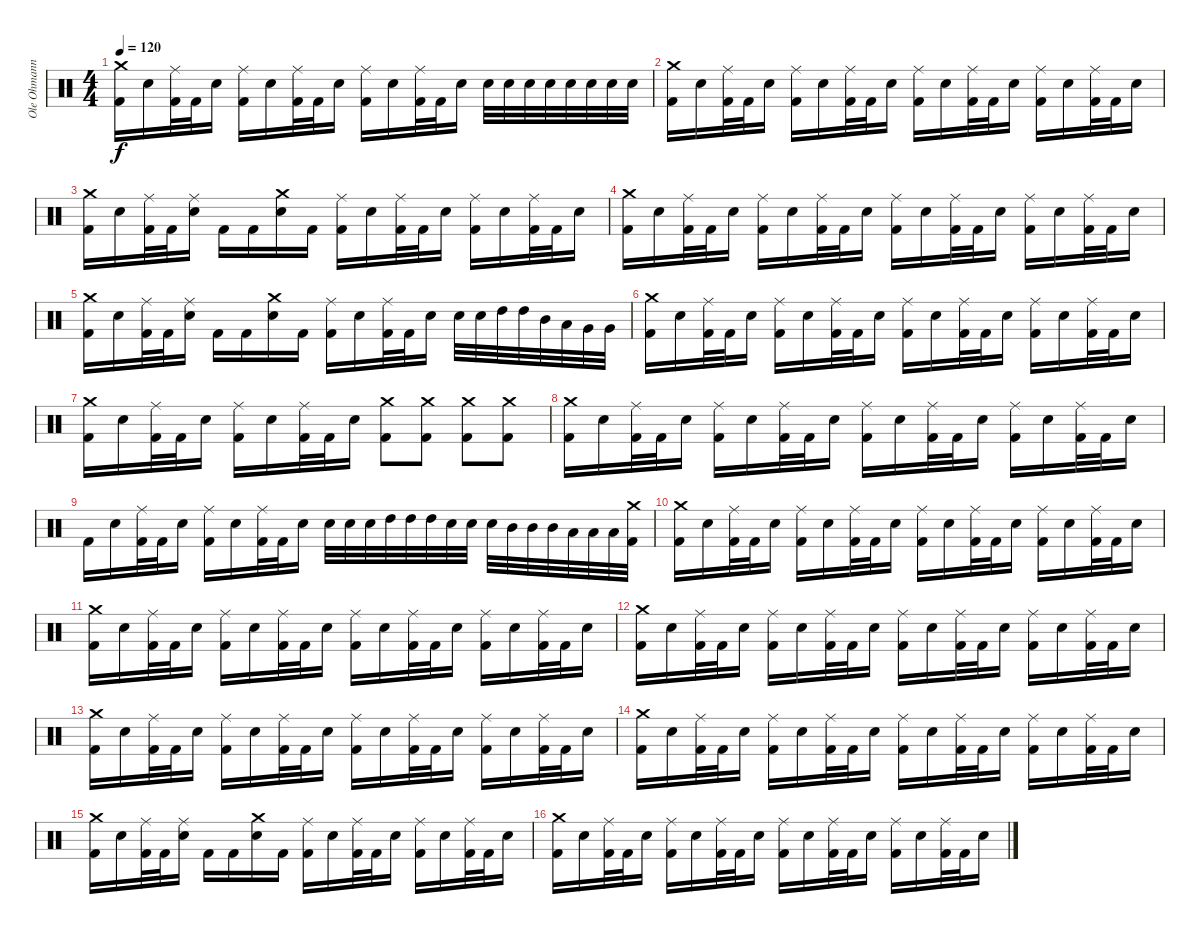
\track ("Ole Ohmann" "Ole Ohmann") {instrument percussion}
\staff {score}
\articulation defaults
\ts (4 4)
\tempo 120
\clef neutral
\ks c
("Crash medium (hit)" "Kick (hit) 2").16{dy f} "Electric Snare (hit)".16 ("Ride (middle)" "Kick (hit) 2").32 "Kick (hit) 2".32 "Electric Snare (hit)".16 ("Ride (middle)" "Kick (hit) 2").16 "Electric Snare (hit)".16 ("Ride (middle)" "Kick (hit) 2").32 "Kick (hit) 2".32 "Electric Snare (hit)".16 ("Ride (middle)" "Kick (hit) 2").16 "Electric Snare (hit)".16 ("Ride (middle)" "Kick (hit) 2").32 "Kick (hit) 2".32 "Electric Snare (hit)".16 "Electric Snare (hit)".32 "Electric Snare (hit)".32 "Electric Snare (hit)".32 "Electric Snare (hit)".32 "Electric Snare (hit)".32 "Electric Snare (hit)".32 "Electric Snare (hit)".32 "Electric Snare (hit)".32 |
("Crash medium (hit)" "Kick (hit) 2").16 "Electric Snare (hit)".16 ("Ride (middle)" "Kick (hit) 2").32 "Kick (hit) 2".32 "Electric Snare (hit)".16 ("Ride (middle)" "Kick (hit) 2").16 "Electric Snare (hit)".16 ("Ride (middle)" "Kick (hit) 2").32 "Kick (hit) 2".32 "Electric Snare (hit)".16 ("Ride (middle)" "Kick (hit) 2").16 "Electric Snare (hit)".16 ("Ride (middle)" "Kick (hit) 2").32 "Kick (hit) 2".32 "Electric Snare (hit)".16 ("Ride (middle)" "Kick (hit) 2").16 "Electric Snare (hit)".16 ("Ride (middle)" "Kick (hit) 2").32 "Kick (hit) 2".32 "Electric Snare (hit)".16 |
("Crash medium (hit)" "Kick (hit) 2").16 "Electric Snare (hit)".16 ("Ride (middle)" "Kick (hit) 2").32 "Kick (hit) 2".32 ("Ride (middle)" "Electric Snare (hit)").16 "Kick (hit) 2".16 "Kick (hit) 2".16 ("Crash medium (hit)" "Electric Snare (hit)").16 "Kick (hit) 2".16 ("Ride (middle)" "Kick (hit) 2").16 "Electric Snare (hit)".16 ("Ride (middle)" "Kick (hit) 2").32 "Kick (hit) 2".32 "Electric Snare (hit)".16 ("Ride (middle)" "Kick (hit) 2").16 "Electric Snare (hit)".16 ("Ride (middle)" "Kick (hit) 2").32 "Kick (hit) 2".32 "Electric Snare (hit)".16 |
("Crash medium (hit)" "Kick (hit) 2").16 "Electric Snare (hit)".16 ("Ride (middle)" "Kick (hit) 2").32 "Kick (hit) 2".32 "Electric Snare (hit)".16 ("Ride (middle)" "Kick (hit) 2").16 "Electric Snare (hit)".16 ("Ride (middle)" "Kick (hit) 2").32 "Kick (hit) 2".32 "Electric Snare (hit)".16 ("Ride (middle)" "Kick (hit) 2").16 "Electric Snare (hit)".16 ("Ride (middle)" "Kick (hit) 2").32 "Kick (hit) 2".32 "Electric Snare (hit)".16 ("Ride (middle)" "Kick (hit) 2").16 "Electric Snare (hit)".16 ("Ride (middle)" "Kick (hit) 2").32 "Kick (hit) 2".32 "Electric Snare (hit)".16 |
("Crash medium (hit)" "Kick (hit) 2").16 "Electric Snare (hit)".16 ("Ride (middle)" "Kick (hit) 2").32 "Kick (hit) 2".32 ("Ride (middle)" "Electric Snare (hit)").16 "Kick (hit) 2".16 "Kick (hit) 2".16 ("Crash medium (hit)" "Electric Snare (hit)").16 "Kick (hit) 2".16 ("Ride (middle)" "Kick (hit) 2").16 "Electric Snare (hit)".16 ("Ride (middle)" "Kick (hit) 2").32 "Kick (hit) 2".32 "Electric Snare (hit)".16 "Electric Snare (hit)".32 "Electric Snare (hit)".32 "High Tom (hit)".32 "High Tom (hit)".32 "Mid Tom (hit)".32 "Low Tom (hit)".32 "Very Low Tom (hit)".32 "Very Low Tom (hit)".32 |
("Crash medium (hit)" "Kick (hit) 2").16 "Electric Snare (hit)".16 ("Ride (middle)" "Kick (hit) 2").32 "Kick (hit) 2".32 "Electric Snare (hit)".16 ("Ride (middle)" "Kick (hit) 2").16 "Electric Snare (hit)".16 ("Ride (middle)" "Kick (hit) 2").32 "Kick (hit) 2".32 "Electric Snare (hit)".16 ("Ride (middle)" "Kick (hit) 2").16 "Electric Snare (hit)".16 ("Ride (middle)" "Kick (hit) 2").32 "Kick (hit) 2".32 "Electric Snare (hit)".16 ("Ride (middle)" "Kick (hit) 2").16 "Electric Snare (hit)".16 ("Ride (middle)" "Kick (hit) 2").32 "Kick (hit) 2".32 "Electric Snare (hit)".16 |
("Crash medium (hit)" "Kick (hit) 2").16 "Electric Snare (hit)".16 ("Ride (middle)" "Kick (hit) 2").32 "Kick (hit) 2".32 "Electric Snare (hit)".16 ("Ride (middle)" "Kick (hit) 2").16 "Electric Snare (hit)".16 ("Ride (middle)" "Kick (hit) 2").32 "Kick (hit) 2".32 "Electric Snare (hit)".16 ("Crash medium (hit)" "Kick (hit) 2").8 ("Crash medium (hit)" "Kick (hit) 2").8 ("Crash medium (hit)" "Kick (hit) 2").8 ("Crash medium (hit)" "Kick (hit) 2").8 |
("Crash medium (hit)" "Kick (hit) 2").16 "Electric Snare (hit)".16 ("Ride (middle)" "Kick (hit) 2").32 "Kick (hit) 2".32 "Electric Snare (hit)".16 ("Ride (middle)" "Kick (hit) 2").16 "Electric Snare (hit)".16 ("Ride (middle)" "Kick (hit) 2").32 "Kick (hit) 2".32 "Electric Snare (hit)".16 ("Ride (middle)" "Kick (hit) 2").16 "Electric Snare (hit)".16 ("Ride (middle)" "Kick (hit) 2").32 "Kick (hit) 2".32 "Electric Snare (hit)".16 ("Ride (middle)" "Kick (hit) 2").16 "Electric Snare (hit)".16 ("Ride (middle)" "Kick (hit) 2").32 "Kick (hit) 2".32 "Electric Snare (hit)".16 |
"Kick (hit) 2".16 "Electric Snare (hit)".16 ("Ride (middle)" "Kick (hit) 2").32 "Kick (hit) 2".32 "Electric Snare (hit)".16 ("Ride (middle)" "Kick (hit) 2").16 "Electric Snare (hit)".16 ("Ride (middle)" "Kick (hit) 2").32 "Kick (hit) 2".32 "Electric Snare (hit)".16 "Electric Snare (hit)".32 "Electric Snare (hit)".32 "Electric Snare (hit)".32 "High Tom (hit)".32 "High Tom (hit)".32 "High Tom (hit)".32 "Electric Snare (hit)".32 "Electric Snare (hit)".32 "Electric Snare (hit)".32 "Mid Tom (hit)".32 "Mid Tom (hit)".32 "Mid Tom (hit)".32 "Low Tom (hit)".32 "Low Tom (hit)".32 "Low Tom (hit)".32 ("Crash medium (hit)" "Kick (hit) 2").32 |
("Crash medium (hit)" "Kick (hit) 2").16 "Electric Snare (hit)".16 ("Ride (middle)" "Kick (hit) 2").32 "Kick (hit) 2".32 "Electric Snare (hit)".16 ("Ride (middle)" "Kick (hit) 2").16 "Electric Snare (hit)".16 ("Ride (middle)" "Kick (hit) 2").32 "Kick (hit) 2".32 "Electric Snare (hit)".16 ("Ride (middle)" "Kick (hit) 2").16 "Electric Snare (hit)".16 ("Ride (middle)" "Kick (hit) 2").32 "Kick (hit) 2".32 "Electric Snare (hit)".16 ("Ride (middle)" "Kick (hit) 2").16 "Electric Snare (hit)".16 ("Ride (middle)" "Kick (hit) 2").32 "Kick (hit) 2".32 "Electric Snare (hit)".16 |
("Crash medium (hit)" "Kick (hit) 2").16 "Electric Snare (hit)".16 ("Ride (middle)" "Kick (hit) 2").32 "Kick (hit) 2".32 "Electric Snare (hit)".16 ("Ride (middle)" "Kick (hit) 2").16 "Electric Snare (hit)".16 ("Ride (middle)" "Kick (hit) 2").32 "Kick (hit) 2".32 "Electric Snare (hit)".16 ("Ride (middle)" "Kick (hit) 2").16 "Electric Snare (hit)".16 ("Ride (middle)" "Kick (hit) 2").32 "Kick (hit) 2".32 "Electric Snare (hit)".16 ("Ride (middle)" "Kick (hit) 2").16 "Electric Snare (hit)".16 ("Ride (middle)" "Kick (hit) 2").32 "Kick (hit) 2".32 "Electric Snare (hit)".16 |
("Crash medium (hit)" "Kick (hit) 2").16 "Electric Snare (hit)".16 ("Ride (middle)" "Kick (hit) 2").32 "Kick (hit) 2".32 "Electric Snare (hit)".16 ("Ride (middle)" "Kick (hit) 2").16 "Electric Snare (hit)".16 ("Ride (middle)" "Kick (hit) 2").32 "Kick (hit) 2".32 "Electric Snare (hit)".16 ("Ride (middle)" "Kick (hit) 2").16 "Electric Snare (hit)".16 ("Ride (middle)" "Kick (hit) 2").32 "Kick (hit) 2".32 "Electric Snare (hit)".16 ("Ride (middle)" "Kick (hit) 2").16 "Electric Snare (hit)".16 ("Ride (middle)" "Kick (hit) 2").32 "Kick (hit) 2".32 "Electric Snare (hit)".16 |
("Crash medium (hit)" "Kick (hit) 2").16 "Electric Snare (hit)".16 ("Ride (middle)" "Kick (hit) 2").32 "Kick (hit) 2".32 "Electric Snare (hit)".16 ("Ride (middle)" "Kick (hit) 2").16 "Electric Snare (hit)".16 ("Ride (middle)" "Kick (hit) 2").32 "Kick (hit) 2".32 "Electric Snare (hit)".16 ("Ride (middle)" "Kick (hit) 2").16 "Electric Snare (hit)".16 ("Ride (middle)" "Kick (hit) 2").32 "Kick (hit) 2".32 "Electric Snare (hit)".16 ("Ride (middle)" "Kick (hit) 2").16 "Electric Snare (hit)".16 ("Ride (middle)" "Kick (hit) 2").32 "Kick (hit) 2".32 "Electric Snare (hit)".16 |
("Crash medium (hit)" "Kick (hit) 2").16 "Electric Snare (hit)".16 ("Ride (middle)" "Kick (hit) 2").32 "Kick (hit) 2".32 "Electric Snare (hit)".16 ("Ride (middle)" "Kick (hit) 2").16 "Electric Snare (hit)".16 ("Ride (middle)" "Kick (hit) 2").32 "Kick (hit) 2".32 "Electric Snare (hit)".16 ("Ride (middle)" "Kick (hit) 2").16 "Electric Snare (hit)".16 ("Ride (middle)" "Kick (hit) 2").32 "Kick (hit) 2".32 "Electric Snare (hit)".16 ("Ride (middle)" "Kick (hit) 2").16 "Electric Snare (hit)".16 ("Ride (middle)" "Kick (hit) 2").32 "Kick (hit) 2".32 "Electric Snare (hit)".16 |
("Crash medium (hit)" "Kick (hit) 2").16 "Electric Snare (hit)".16 ("Ride (middle)" "Kick (hit) 2").32 "Kick (hit) 2".32 ("Ride (middle)" "Electric Snare (hit)").16 "Kick (hit) 2".16 "Kick (hit) 2".16 ("Crash medium (hit)" "Electric Snare (hit)").16 "Kick (hit) 2".16 ("Ride (middle)" "Kick (hit) 2").16 "Electric Snare (hit)".16 ("Ride (middle)" "Kick (hit) 2").32 "Kick (hit) 2".32 "Electric Snare (hit)".16 ("Ride (middle)" "Kick (hit) 2").16 "Electric Snare (hit)".16 ("Ride (middle)" "Kick (hit) 2").32 "Kick (hit) 2".32 "Electric Snare (hit)".16 |
("Crash medium (hit)" "Kick (hit) 2").16 "Electric Snare (hit)".16 ("Ride (middle)" "Kick (hit) 2").32 "Kick (hit) 2".32 "Electric Snare (hit)".16 ("Ride (middle)" "Kick (hit) 2").16 "Electric Snare (hit)".16 ("Ride (middle)" "Kick (hit) 2").32 "Kick (hit) 2".32 "Electric Snare (hit)".16 ("Ride (middle)" "Kick (hit) 2").16 "Electric Snare (hit)".16 ("Ride (middle)" "Kick (hit) 2").32 "Kick (hit) 2".32 "Electric Snare (hit)".16 ("Ride (middle)" "Kick (hit) 2").16 "Electric Snare (hit)".16 ("Ride (middle)" "Kick (hit) 2").32 "Kick (hit) 2".32 "Electric Snare (hit)".16
